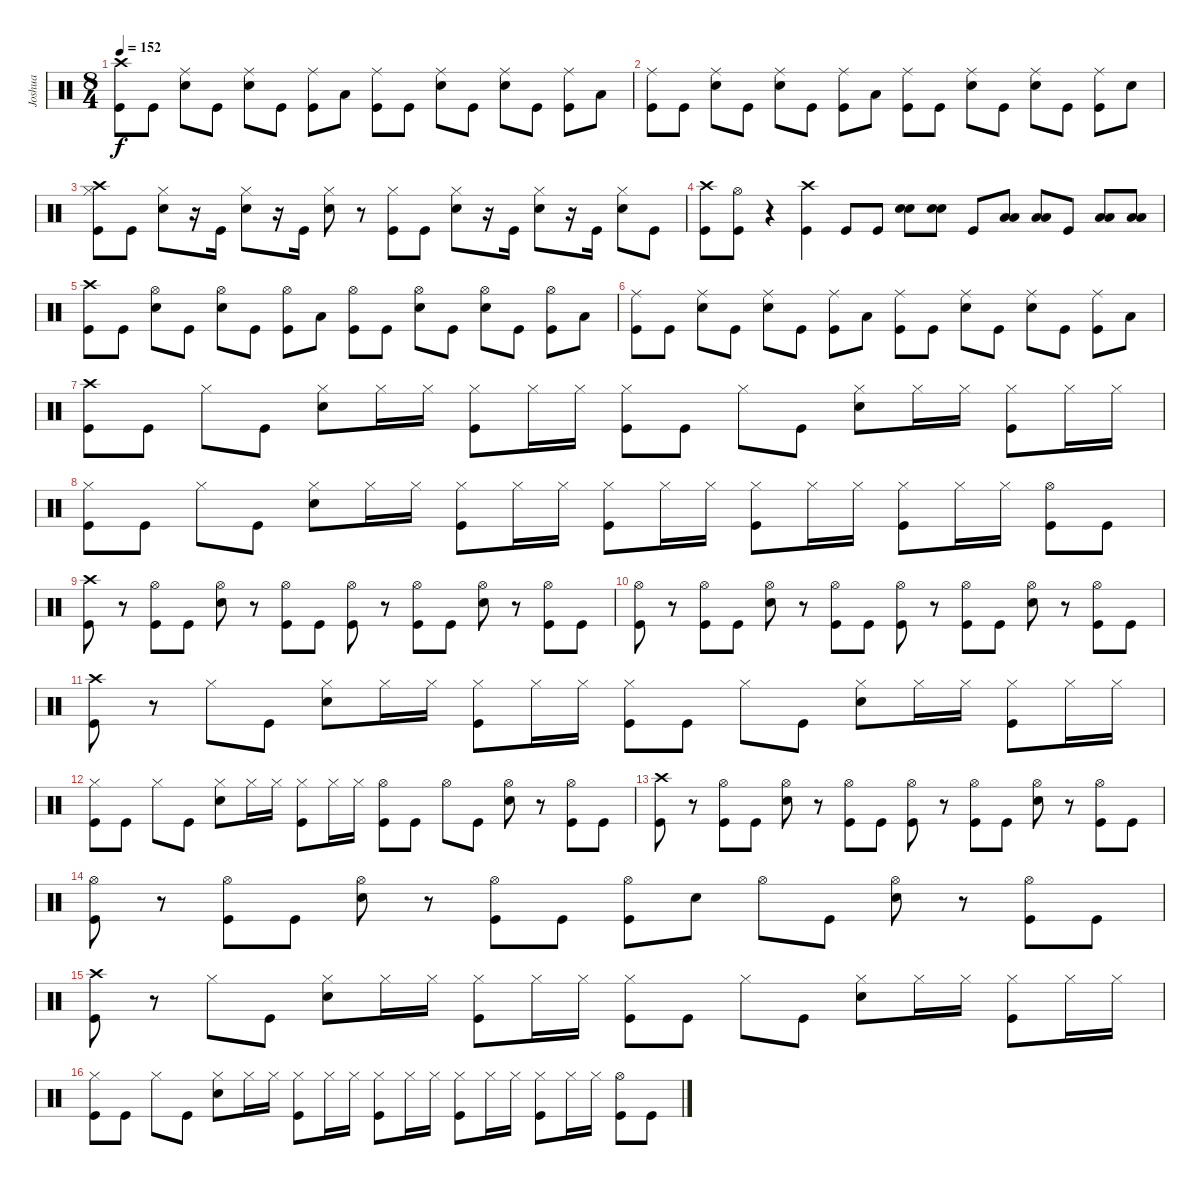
\track ("Joshua" "Joshua") {instrument percussion}
\staff {score}
\articulation defaults
\ts (8 4)
\tempo 152
\clef neutral
\ks c
("Crash high (hit)" "Kick (hit)").8{dy f} "Kick (hit)".8 ("Ride (middle)" "Electric Snare (hit)").8 "Kick (hit)".8 ("Ride (middle)" "Electric Snare (hit)").8 "Kick (hit)".8 ("Ride (middle)" "Kick (hit)").8 "Low Tom (hit)".8 ("Ride (middle)" "Kick (hit)").8 "Kick (hit)".8 ("Ride (middle)" "Electric Snare (hit)").8 "Kick (hit)".8 ("Ride (middle)" "Electric Snare (hit)").8 "Kick (hit)".8 ("Ride (middle)" "Kick (hit)").8 "Low Tom (hit)".8 |
("Ride (middle)" "Kick (hit)").8 "Kick (hit)".8 ("Ride (middle)" "Electric Snare (hit)").8 "Kick (hit)".8 ("Ride (middle)" "Electric Snare (hit)").8 "Kick (hit)".8 ("Ride (middle)" "Kick (hit)").8 "Low Tom (hit)".8 ("Ride (middle)" "Kick (hit)").8 "Kick (hit)".8 ("Ride (middle)" "Electric Snare (hit)").8 "Kick (hit)".8 ("Ride (middle)" "Electric Snare (hit)").8 "Kick (hit)".8 ("Ride (middle)" "Kick (hit)").8 "Electric Snare (hit)".8 |
("Crash high (hit)" "Hi-Hat (closed)" "Kick (hit)").8 "Kick (hit)".8 ("Hi-Hat (closed)" "Electric Snare (hit)").8 r.16 "Kick (hit)".16 ("Hi-Hat (closed)" "Electric Snare (hit)").8 r.16 "Kick (hit)".16 ("Hi-Hat (closed)" "Electric Snare (hit)").8 r.8 ("Hi-Hat (closed)" "Kick (hit)").8 "Kick (hit)".8 ("Hi-Hat (closed)" "Electric Snare (hit)").8 r.16 "Kick (hit)".16 ("Hi-Hat (closed)" "Electric Snare (hit)").8 r.16 "Kick (hit)".16 ("Hi-Hat (closed)" "Electric Snare (hit)").8 "Kick (hit)".8 |
("Crash high (hit)" "Kick (hit)").8 ("Hi-Hat (open)" "Kick (hit)").8 r.4 ("Crash high (hit)" "Kick (hit)").4 "Kick (hit)".8 "Kick (hit)".8 ("Electric Snare (hit)" "Electric Snare (hit)").8 ("Electric Snare (hit)" "Electric Snare (hit)").8 "Kick (hit)".8 ("Low Tom (hit)" "Low Tom (hit)").8 ("Low Tom (hit)" "Low Tom (hit)").8 "Kick (hit)".8 ("Low Floor Tom (hit)" "Low Floor Tom (hit)").8 ("Low Floor Tom (hit)" "Low Floor Tom (hit)").8 |
("Crash high (hit)" "Kick (hit)").8 "Kick (hit)".8 ("Hi-Hat (open)" "Electric Snare (hit)").8 "Kick (hit)".8 ("Hi-Hat (open)" "Electric Snare (hit)").8 "Kick (hit)".8 ("Hi-Hat (open)" "Kick (hit)").8 "Low Tom (hit)".8 ("Hi-Hat (open)" "Kick (hit)").8 "Kick (hit)".8 ("Hi-Hat (open)" "Electric Snare (hit)").8 "Kick (hit)".8 ("Hi-Hat (open)" "Electric Snare (hit)").8 "Kick (hit)".8 ("Hi-Hat (open)" "Kick (hit)").8 "Low Tom (hit)".8 |
("Ride (middle)" "Kick (hit)").8 "Kick (hit)".8 ("Ride (middle)" "Electric Snare (hit)").8 "Kick (hit)".8 ("Ride (middle)" "Electric Snare (hit)").8 "Kick (hit)".8 ("Ride (middle)" "Kick (hit)").8 "Low Tom (hit)".8 ("Ride (middle)" "Kick (hit)").8 "Kick (hit)".8 ("Ride (middle)" "Electric Snare (hit)").8 "Kick (hit)".8 ("Ride (middle)" "Electric Snare (hit)").8 "Kick (hit)".8 ("Ride (middle)" "Kick (hit)").8 "Low Tom (hit)".8 |
("Crash high (hit)" "Kick (hit)").8 "Kick (hit)".8 "Hi-Hat (closed)".8 "Kick (hit)".8 ("Hi-Hat (closed)" "Electric Snare (hit)").8 "Hi-Hat (closed)".16 "Hi-Hat (closed)".16 ("Hi-Hat (closed)" "Kick (hit)").8 "Hi-Hat (closed)".16 "Hi-Hat (closed)".16 ("Hi-Hat (closed)" "Kick (hit)").8 "Kick (hit)".8 "Hi-Hat (closed)".8 "Kick (hit)".8 ("Hi-Hat (closed)" "Electric Snare (hit)").8 "Hi-Hat (closed)".16 "Hi-Hat (closed)".16 ("Hi-Hat (closed)" "Kick (hit)").8 "Hi-Hat (closed)".16 "Hi-Hat (closed)".16 |
("Hi-Hat (closed)" "Kick (hit)").8 "Kick (hit)".8 "Hi-Hat (closed)".8 "Kick (hit)".8 ("Hi-Hat (closed)" "Electric Snare (hit)").8 "Hi-Hat (closed)".16 "Hi-Hat (closed)".16 ("Hi-Hat (closed)" "Kick (hit)").8 "Hi-Hat (closed)".16 "Hi-Hat (closed)".16 ("Hi-Hat (closed)" "Kick (hit)").8 "Hi-Hat (closed)".16 "Hi-Hat (closed)".16 ("Hi-Hat (closed)" "Kick (hit)").8 "Hi-Hat (closed)".16 "Hi-Hat (closed)".16 ("Hi-Hat (closed)" "Kick (hit)").8 "Hi-Hat (closed)".16 "Hi-Hat (closed)".16 ("Hi-Hat (open)" "Kick (hit)").8 "Kick (hit)".8 |
("Crash high (hit)" "Kick (hit)").8 r.8 ("Hi-Hat (open)" "Kick (hit)").8 "Kick (hit)".8 ("Hi-Hat (open)" "Electric Snare (hit)").8 r.8 ("Hi-Hat (open)" "Kick (hit)").8 "Kick (hit)".8 ("Hi-Hat (open)" "Kick (hit)").8 r.8 ("Hi-Hat (open)" "Kick (hit)").8 "Kick (hit)".8 ("Hi-Hat (open)" "Electric Snare (hit)").8 r.8 ("Hi-Hat (open)" "Kick (hit)").8 "Kick (hit)".8 |
("Hi-Hat (open)" "Kick (hit)").8 r.8 ("Hi-Hat (open)" "Kick (hit)").8 "Kick (hit)".8 ("Hi-Hat (open)" "Electric Snare (hit)").8 r.8 ("Hi-Hat (open)" "Kick (hit)").8 "Kick (hit)".8 ("Hi-Hat (open)" "Kick (hit)").8 r.8 ("Hi-Hat (open)" "Kick (hit)").8 "Kick (hit)".8 ("Hi-Hat (open)" "Electric Snare (hit)").8 r.8 ("Hi-Hat (open)" "Kick (hit)").8 "Kick (hit)".8 |
("Crash high (hit)" "Kick (hit)").8 r.8 "Hi-Hat (closed)".8 "Kick (hit)".8 ("Hi-Hat (closed)" "Electric Snare (hit)").8 "Hi-Hat (closed)".16 "Hi-Hat (closed)".16 ("Hi-Hat (closed)" "Kick (hit)").8 "Hi-Hat (closed)".16 "Hi-Hat (closed)".16 ("Hi-Hat (closed)" "Kick (hit)").8 "Kick (hit)".8 "Hi-Hat (closed)".8 "Kick (hit)".8 ("Hi-Hat (closed)" "Electric Snare (hit)").8 "Hi-Hat (closed)".16 "Hi-Hat (closed)".16 ("Hi-Hat (closed)" "Kick (hit)").8 "Hi-Hat (closed)".16 "Hi-Hat (closed)".16 |
("Hi-Hat (closed)" "Kick (hit)").8 "Kick (hit)".8 "Hi-Hat (closed)".8 "Kick (hit)".8 ("Hi-Hat (closed)" "Electric Snare (hit)").8 "Hi-Hat (closed)".16 "Hi-Hat (closed)".16 ("Hi-Hat (closed)" "Kick (hit)").8 "Hi-Hat (closed)".16 "Hi-Hat (closed)".16 ("Hi-Hat (open)" "Kick (hit)").8 "Kick (hit)".8 "Hi-Hat (open)".8 "Kick (hit)".8 ("Hi-Hat (open)" "Electric Snare (hit)").8 r.8 ("Hi-Hat (open)" "Kick (hit)").8 "Kick (hit)".8 |
("Crash high (hit)" "Kick (hit)").8 r.8 ("Hi-Hat (open)" "Kick (hit)").8 "Kick (hit)".8 ("Hi-Hat (open)" "Electric Snare (hit)").8 r.8 ("Hi-Hat (open)" "Kick (hit)").8 "Kick (hit)".8 ("Hi-Hat (open)" "Kick (hit)").8 r.8 ("Hi-Hat (open)" "Kick (hit)").8 "Kick (hit)".8 ("Hi-Hat (open)" "Electric Snare (hit)").8 r.8 ("Hi-Hat (open)" "Kick (hit)").8 "Kick (hit)".8 |
("Hi-Hat (open)" "Kick (hit)").8 r.8 ("Hi-Hat (open)" "Kick (hit)").8 "Kick (hit)".8 ("Hi-Hat (open)" "Electric Snare (hit)").8 r.8 ("Hi-Hat (open)" "Kick (hit)").8 "Kick (hit)".8 ("Hi-Hat (open)" "Kick (hit)").8 "Electric Snare (hit)".8 "Hi-Hat (open)".8 "Kick (hit)".8 ("Hi-Hat (open)" "Electric Snare (hit)").8 r.8 ("Hi-Hat (open)" "Kick (hit)").8 "Kick (hit)".8 |
("Crash high (hit)" "Kick (hit)").8 r.8 "Hi-Hat (closed)".8 "Kick (hit)".8 ("Hi-Hat (closed)" "Electric Snare (hit)").8 "Hi-Hat (closed)".16 "Hi-Hat (closed)".16 ("Hi-Hat (closed)" "Kick (hit)").8 "Hi-Hat (closed)".16 "Hi-Hat (closed)".16 ("Hi-Hat (closed)" "Kick (hit)").8 "Kick (hit)".8 "Hi-Hat (closed)".8 "Kick (hit)".8 ("Hi-Hat (closed)" "Electric Snare (hit)").8 "Hi-Hat (closed)".16 "Hi-Hat (closed)".16 ("Hi-Hat (closed)" "Kick (hit)").8 "Hi-Hat (closed)".16 "Hi-Hat (closed)".16 |
("Hi-Hat (closed)" "Kick (hit)").8 "Kick (hit)".8 "Hi-Hat (closed)".8 "Kick (hit)".8 ("Hi-Hat (closed)" "Electric Snare (hit)").8 "Hi-Hat (closed)".16 "Hi-Hat (closed)".16 ("Hi-Hat (closed)" "Kick (hit)").8 "Hi-Hat (closed)".16 "Hi-Hat (closed)".16 ("Hi-Hat (closed)" "Kick (hit)").8 "Hi-Hat (closed)".16 "Hi-Hat (closed)".16 ("Hi-Hat (closed)" "Kick (hit)").8 "Hi-Hat (closed)".16 "Hi-Hat (closed)".16 ("Hi-Hat (closed)" "Kick (hit)").8 "Hi-Hat (closed)".16 "Hi-Hat (closed)".16 ("Hi-Hat (open)" "Kick (hit)").8 "Kick (hit)".8
